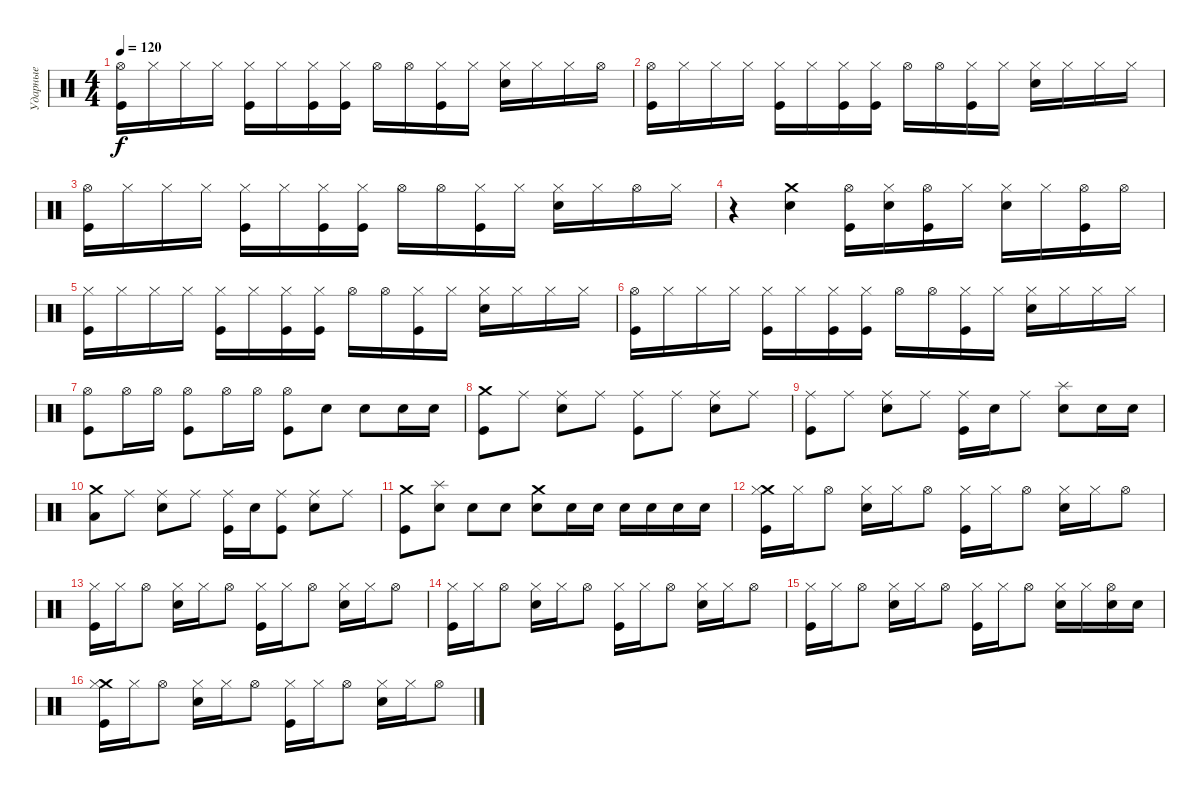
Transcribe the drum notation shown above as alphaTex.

\track ("Ударные" "Ударные") {instrument percussion}
\staff {score}
\articulation defaults
\ts (4 4)
\tempo 120
\clef neutral
\ks c
("Hi-Hat (open)" "Kick (hit)").16{dy f} "Hi-Hat (closed)".16 "Hi-Hat (closed)".16 "Hi-Hat (closed)".16 ("Hi-Hat (closed)" "Kick (hit)").16 "Hi-Hat (closed)".16 ("Hi-Hat (closed)" "Kick (hit)").16 ("Hi-Hat (closed)" "Kick (hit)").16 "Hi-Hat (open)".16 "Hi-Hat (open)".16 ("Hi-Hat (closed)" "Kick (hit)").16 "Hi-Hat (closed)".16 ("Hi-Hat (closed)" "Snare (hit) 2").16 "Hi-Hat (closed)".16 "Hi-Hat (closed)".16 "Hi-Hat (open)".16 |
("Hi-Hat (open)" "Kick (hit)").16 "Hi-Hat (closed)".16 "Hi-Hat (closed)".16 "Hi-Hat (closed)".16 ("Hi-Hat (closed)" "Kick (hit)").16 "Hi-Hat (closed)".16 ("Hi-Hat (closed)" "Kick (hit)").16 ("Hi-Hat (closed)" "Kick (hit)").16 "Hi-Hat (open)".16 "Hi-Hat (open)".16 ("Hi-Hat (closed)" "Kick (hit)").16 "Hi-Hat (closed)".16 ("Hi-Hat (closed)" "Snare (hit) 2").16 "Hi-Hat (closed)".16 "Hi-Hat (closed)".16 "Hi-Hat (closed)".16 |
("Hi-Hat (open)" "Kick (hit)").16 "Hi-Hat (closed)".16 "Hi-Hat (closed)".16 "Hi-Hat (closed)".16 ("Hi-Hat (closed)" "Kick (hit)").16 "Hi-Hat (closed)".16 ("Hi-Hat (closed)" "Kick (hit)").16 ("Hi-Hat (closed)" "Kick (hit)").16 "Hi-Hat (open)".16 "Hi-Hat (open)".16 ("Hi-Hat (closed)" "Kick (hit)").16 "Hi-Hat (closed)".16 ("Hi-Hat (closed)" "Snare (hit) 2").16 "Hi-Hat (closed)".16 "Hi-Hat (open)".16 "Hi-Hat (closed)".16 |
r.4 ("Snare (hit) 2" "Crash medium (hit)").4 ("Hi-Hat (open)" "Kick (hit)").16 ("Hi-Hat (closed)" "Snare (hit) 2").16 ("Hi-Hat (open)" "Kick (hit)").16 "Hi-Hat (closed)".16 ("Snare (hit) 2" "Hi-Hat (closed)").16 "Hi-Hat (closed)".16 ("Kick (hit)" "Hi-Hat (open)").16 "Hi-Hat (open)".16 |
("Hi-Hat (closed)" "Kick (hit)").16 "Hi-Hat (closed)".16 "Hi-Hat (closed)".16 "Hi-Hat (closed)".16 ("Hi-Hat (closed)" "Kick (hit)").16 "Hi-Hat (closed)".16 ("Hi-Hat (closed)" "Kick (hit)").16 ("Hi-Hat (closed)" "Kick (hit)").16 "Hi-Hat (open)".16 "Hi-Hat (open)".16 ("Hi-Hat (closed)" "Kick (hit)").16 "Hi-Hat (closed)".16 ("Hi-Hat (closed)" "Snare (hit) 2").16 "Hi-Hat (closed)".16 "Hi-Hat (closed)".16 "Hi-Hat (closed)".16 |
("Hi-Hat (open)" "Kick (hit)").16 "Hi-Hat (closed)".16 "Hi-Hat (closed)".16 "Hi-Hat (closed)".16 ("Hi-Hat (closed)" "Kick (hit)").16 "Hi-Hat (closed)".16 ("Hi-Hat (closed)" "Kick (hit)").16 ("Hi-Hat (closed)" "Kick (hit)").16 "Hi-Hat (open)".16 "Hi-Hat (open)".16 ("Hi-Hat (closed)" "Kick (hit)").16 "Hi-Hat (closed)".16 ("Hi-Hat (closed)" "Snare (hit) 2").16 "Hi-Hat (closed)".16 "Hi-Hat (closed)".16 "Hi-Hat (closed)".16 |
("Hi-Hat (open)" "Kick (hit)").8 "Hi-Hat (open)".16 "Hi-Hat (open)".16 ("Hi-Hat (open)" "Kick (hit)").8 "Hi-Hat (open)".16 "Hi-Hat (open)".16 ("Hi-Hat (open)" "Kick (hit)").8 "Snare (hit) 2".8 "Snare (hit) 2".8 "Snare (hit) 2".16 "Snare (hit) 2".16 |
("Crash medium (hit)" "Kick (hit)").8 "Ride (middle)".8 ("Snare (hit) 2" "Ride (middle)").8 "Ride (middle)".8 ("Kick (hit)" "Ride (middle)").8 "Ride (middle)".8 ("Snare (hit) 2" "Ride (middle)").8 "Ride (middle)".8 |
("Kick (hit)" "Ride (middle)").8 "Ride (middle)".8 ("Snare (hit) 2" "Ride (middle)").8 "Ride (middle)".8 ("Kick (hit)" "Ride (middle)").16 "Snare (hit) 2".16 "Ride (middle)".8 ("Snare (hit) 2" "Splash (hit)").8 "Snare (hit) 2".16 "Snare (hit) 2".16 |
("Low Tom (hit)" "Crash medium (hit)").8 "Ride (middle)".8 ("Snare (hit) 2" "Ride (middle)").8 "Ride (middle)".8 ("Kick (hit)" "Ride (middle)").16 "Snare (hit) 2".16 ("Kick (hit)" "Ride (middle)").8 ("Snare (hit) 2" "Ride (middle)").8 "Ride (middle)".8 |
("Kick (hit)" "Crash medium (hit)").8 ("Splash (hit)" "Snare (hit) 2").8 "Snare (hit) 2".8 "Snare (hit) 2".8 ("Crash medium (hit)" "Snare (hit) 2").8 "Snare (hit) 2".16 "Snare (hit) 2".16 "Snare (hit) 2".16 "Snare (hit) 2".16 "Snare (hit) 2".16 "Snare (hit) 2".16 |
("Crash medium (hit)" "Hi-Hat (closed)" "Kick (hit)").16 "Hi-Hat (closed)".16 "Hi-Hat (open)".8 ("Hi-Hat (closed)" "Snare (hit) 2").16 "Hi-Hat (closed)".16 "Hi-Hat (open)".8 ("Hi-Hat (closed)" "Kick (hit)").16 "Hi-Hat (closed)".16 "Hi-Hat (open)".8 ("Hi-Hat (closed)" "Snare (hit) 2").16 "Hi-Hat (closed)".16 "Hi-Hat (open)".8 |
("Hi-Hat (closed)" "Kick (hit)").16 "Hi-Hat (closed)".16 "Hi-Hat (open)".8 ("Hi-Hat (closed)" "Snare (hit) 2").16 "Hi-Hat (closed)".16 "Hi-Hat (open)".8 ("Hi-Hat (closed)" "Kick (hit)").16 "Hi-Hat (closed)".16 "Hi-Hat (open)".8 ("Hi-Hat (closed)" "Snare (hit) 2").16 "Hi-Hat (closed)".16 "Hi-Hat (open)".8 |
("Hi-Hat (closed)" "Kick (hit)").16 "Hi-Hat (closed)".16 "Hi-Hat (open)".8 ("Hi-Hat (closed)" "Snare (hit) 2").16 "Hi-Hat (closed)".16 "Hi-Hat (open)".8 ("Hi-Hat (closed)" "Kick (hit)").16 "Hi-Hat (closed)".16 "Hi-Hat (open)".8 ("Hi-Hat (closed)" "Snare (hit) 2").16 "Hi-Hat (closed)".16 "Hi-Hat (open)".8 |
("Hi-Hat (closed)" "Kick (hit)").16 "Hi-Hat (closed)".16 "Hi-Hat (open)".8 ("Hi-Hat (closed)" "Snare (hit) 2").16 "Hi-Hat (closed)".16 "Hi-Hat (open)".8 ("Hi-Hat (closed)" "Kick (hit)").16 "Hi-Hat (closed)".16 "Hi-Hat (open)".8 ("Hi-Hat (closed)" "Snare (hit) 2").16 "Hi-Hat (closed)".16 ("Snare (hit) 2" "Hi-Hat (open)").16 "Snare (hit) 2".16 |
("Crash medium (hit)" "Hi-Hat (closed)" "Kick (hit)").16 "Hi-Hat (closed)".16 "Hi-Hat (open)".8 ("Hi-Hat (closed)" "Snare (hit) 2").16 "Hi-Hat (closed)".16 "Hi-Hat (open)".8 ("Hi-Hat (closed)" "Kick (hit)").16 "Hi-Hat (closed)".16 "Hi-Hat (open)".8 ("Hi-Hat (closed)" "Snare (hit) 2").16 "Hi-Hat (closed)".16 "Hi-Hat (open)".8
